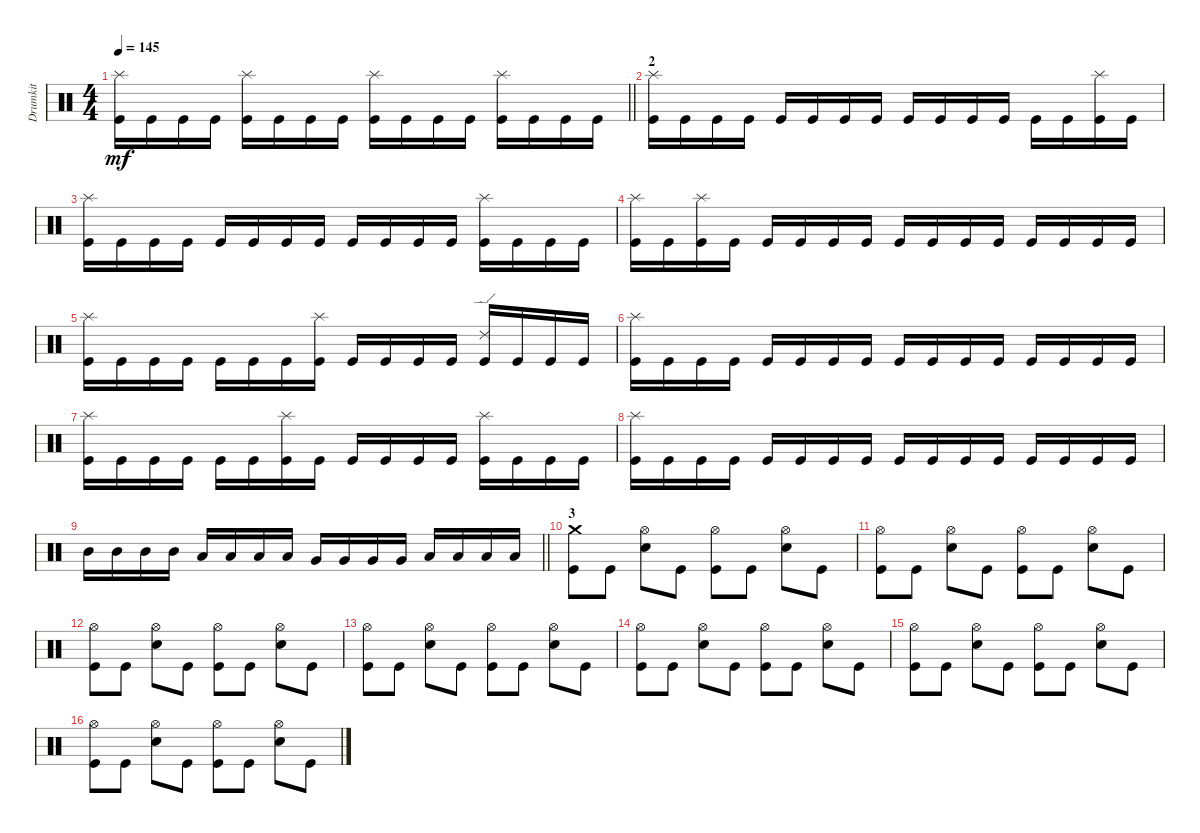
\track ("Drumkit" "Drumkit") {instrument percussion}
\staff {score}
\articulation defaults
\ts (4 4)
\tempo 145
\clef neutral
\barLineRight lightlight
\ks c
("Kick (hit)" "Splash (hit)").16{dy mf} "Kick (hit)".16 "Kick (hit)".16 "Kick (hit)".16 ("Kick (hit)" "Splash (hit)").16 "Kick (hit)".16 "Kick (hit)".16 "Kick (hit)".16 ("Kick (hit)" "Splash (hit)").16 "Kick (hit)".16 "Kick (hit)".16 "Kick (hit)".16 ("Kick (hit)" "Splash (hit)").16 "Kick (hit)".16 "Kick (hit)".16 "Kick (hit)".16 |
\section ("" "2")
("Kick (hit)" "Splash (hit)").16 "Kick (hit)".16 "Kick (hit)".16 "Kick (hit)".16 "Kick (hit)".16 "Kick (hit)".16 "Kick (hit)".16 "Kick (hit)".16 "Kick (hit)".16 "Kick (hit)".16 "Kick (hit)".16 "Kick (hit)".16 "Kick (hit)".16 "Kick (hit)".16 ("Kick (hit)" "Splash (hit)").16 "Kick (hit)".16 |
("Kick (hit)" "Splash (hit)").16 "Kick (hit)".16 "Kick (hit)".16 "Kick (hit)".16 "Kick (hit)".16 "Kick (hit)".16 "Kick (hit)".16 "Kick (hit)".16 "Kick (hit)".16 "Kick (hit)".16 "Kick (hit)".16 "Kick (hit)".16 ("Kick (hit)" "Splash (hit)").16 "Kick (hit)".16 "Kick (hit)".16 "Kick (hit)".16 |
("Kick (hit)" "Splash (hit)").16 "Kick (hit)".16 ("Kick (hit)" "Splash (hit)").16 "Kick (hit)".16 "Kick (hit)".16 "Kick (hit)".16 "Kick (hit)".16 "Kick (hit)".16 "Kick (hit)".16 "Kick (hit)".16 "Kick (hit)".16 "Kick (hit)".16 "Kick (hit)".16 "Kick (hit)".16 "Kick (hit)".16 "Kick (hit)".16 |
("Kick (hit)" "Splash (hit)").16 "Kick (hit)".16 "Kick (hit)".16 "Kick (hit)".16 "Kick (hit)".16 "Kick (hit)".16 "Kick (hit)".16 ("Kick (hit)" "Splash (hit)").16 "Kick (hit)".16 "Kick (hit)".16 "Kick (hit)".16 "Kick (hit)".16 ("Kick (hit)" "Ride (edge) 2").16 "Kick (hit)".16 "Kick (hit)".16 "Kick (hit)".16 |
("Kick (hit)" "Splash (hit)").16 "Kick (hit)".16 "Kick (hit)".16 "Kick (hit)".16 "Kick (hit)".16 "Kick (hit)".16 "Kick (hit)".16 "Kick (hit)".16 "Kick (hit)".16 "Kick (hit)".16 "Kick (hit)".16 "Kick (hit)".16 "Kick (hit)".16 "Kick (hit)".16 "Kick (hit)".16 "Kick (hit)".16 |
("Kick (hit)" "Splash (hit)").16 "Kick (hit)".16 "Kick (hit)".16 "Kick (hit)".16 "Kick (hit)".16 "Kick (hit)".16 ("Kick (hit)" "Splash (hit)").16 "Kick (hit)".16 "Kick (hit)".16 "Kick (hit)".16 "Kick (hit)".16 "Kick (hit)".16 ("Kick (hit)" "Splash (hit)").16 "Kick (hit)".16 "Kick (hit)".16 "Kick (hit)".16 |
("Kick (hit)" "Splash (hit)").16 "Kick (hit)".16 "Kick (hit)".16 "Kick (hit)".16 "Kick (hit)".16 "Kick (hit)".16 "Kick (hit)".16 "Kick (hit)".16 "Kick (hit)".16 "Kick (hit)".16 "Kick (hit)".16 "Kick (hit)".16 "Kick (hit)".16 "Kick (hit)".16 "Kick (hit)".16 "Kick (hit)".16 |
\barLineRight lightlight "Mid Tom (hit)".16 "Mid Tom (hit)".16 "Mid Tom (hit)".16 "Mid Tom (hit)".16 "Low Tom (hit)".16 "Low Tom (hit)".16 "Low Tom (hit)".16 "Low Tom (hit)".16 "Very Low Tom (hit)".16 "Very Low Tom (hit)".16 "Very Low Tom (hit)".16 "Very Low Tom (hit)".16 "Low Floor Tom (hit)".16 "Low Floor Tom (hit)".16 "Low Floor Tom (hit)".16 "Low Floor Tom (hit)".16
|
\section ("" "3")
("Kick (hit)" "Crash medium (hit)").8 "Kick (hit)".8 ("Snare (hit) 2" "Hi-Hat (open)").8 "Kick (hit)".8 ("Kick (hit)" "Hi-Hat (open)").8 "Kick (hit)".8 ("Snare (hit) 2" "Hi-Hat (open)").8 "Kick (hit)".8 |
("Kick (hit)" "Hi-Hat (open)").8 "Kick (hit)".8 ("Snare (hit) 2" "Hi-Hat (open)").8 "Kick (hit)".8 ("Kick (hit)" "Hi-Hat (open)").8 "Kick (hit)".8 ("Snare (hit) 2" "Hi-Hat (open)").8 "Kick (hit)".8 |
("Kick (hit)" "Hi-Hat (open)").8 "Kick (hit)".8 ("Snare (hit) 2" "Hi-Hat (open)").8 "Kick (hit)".8 ("Kick (hit)" "Hi-Hat (open)").8 "Kick (hit)".8 ("Snare (hit) 2" "Hi-Hat (open)").8 "Kick (hit)".8 |
("Kick (hit)" "Hi-Hat (open)").8 "Kick (hit)".8 ("Snare (hit) 2" "Hi-Hat (open)").8 "Kick (hit)".8 ("Kick (hit)" "Hi-Hat (open)").8 "Kick (hit)".8 ("Snare (hit) 2" "Hi-Hat (open)").8 "Kick (hit)".8 |
("Kick (hit)" "Hi-Hat (open)").8 "Kick (hit)".8 ("Snare (hit) 2" "Hi-Hat (open)").8 "Kick (hit)".8 ("Kick (hit)" "Hi-Hat (open)").8 "Kick (hit)".8 ("Snare (hit) 2" "Hi-Hat (open)").8 "Kick (hit)".8 |
("Kick (hit)" "Hi-Hat (open)").8 "Kick (hit)".8 ("Snare (hit) 2" "Hi-Hat (open)").8 "Kick (hit)".8 ("Kick (hit)" "Hi-Hat (open)").8 "Kick (hit)".8 ("Snare (hit) 2" "Hi-Hat (open)").8 "Kick (hit)".8 |
("Kick (hit)" "Hi-Hat (open)").8 "Kick (hit)".8 ("Snare (hit) 2" "Hi-Hat (open)").8 "Kick (hit)".8 ("Kick (hit)" "Hi-Hat (open)").8 "Kick (hit)".8 ("Snare (hit) 2" "Hi-Hat (open)").8 "Kick (hit)".8
